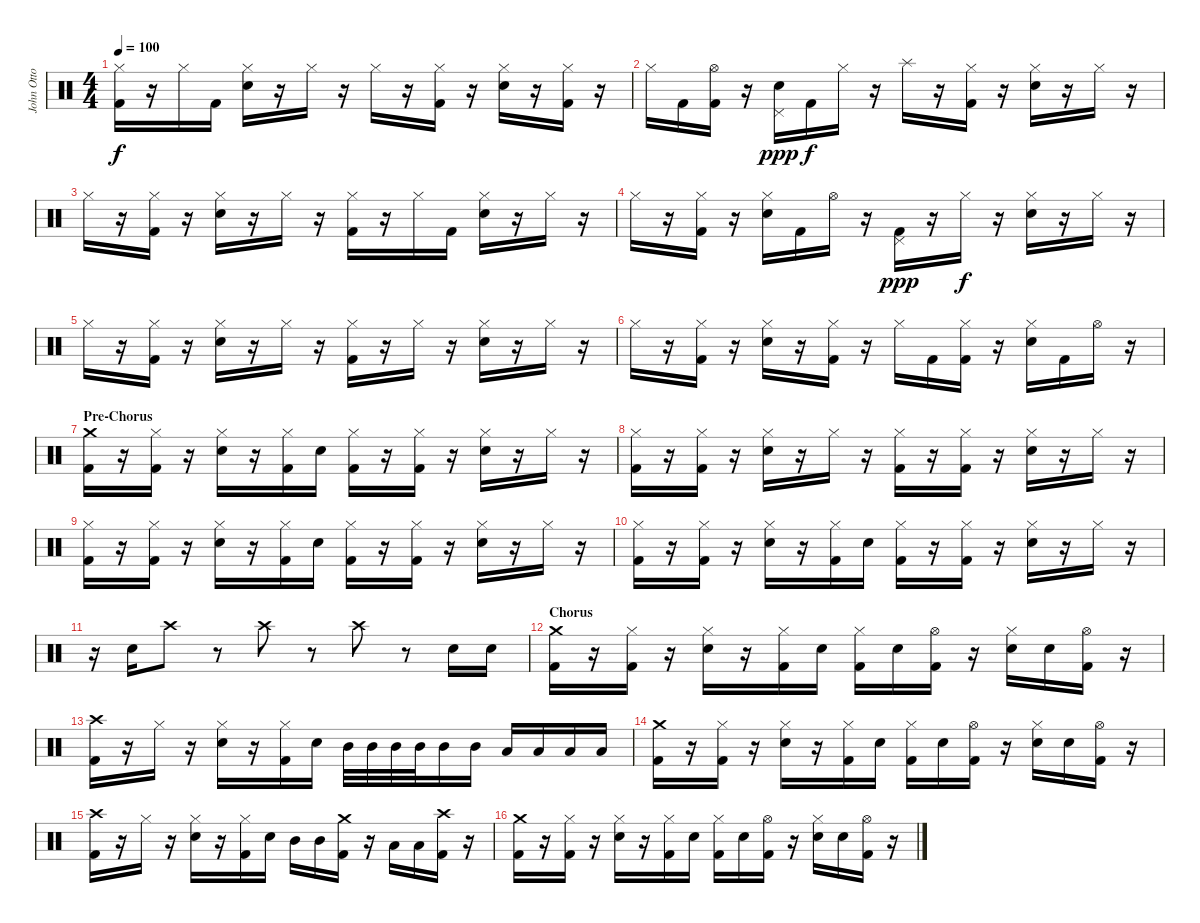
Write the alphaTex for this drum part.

\track ("John Otto - Drums" "John Otto ") {instrument percussion}
\staff {score}
\articulation defaults
\ts (4 4)
\tempo 100
\clef neutral
\ks c
("Hi-Hat (closed)" "Kick (hit) 2").16{dy f} r.16 "Hi-Hat (closed)".16 "Kick (hit) 2".16 ("Hi-Hat (closed)" "Electric Snare (hit)").16 r.16 "Hi-Hat (closed)".16 r.16 "Hi-Hat (closed)".16 r.16 ("Hi-Hat (closed)" "Kick (hit) 2").16 r.16 ("Hi-Hat (closed)" "Electric Snare (hit)").16 r.16 ("Hi-Hat (closed)" "Kick (hit) 2").16 r.16 |
"Hi-Hat (closed)".16 "Kick (hit) 2".16 ("Hi-Hat (open)" "Kick (hit) 2").16 r.16 ("Pedal Hi-Hat (hit)" "Electric Snare (hit)").16{dy ppp} "Kick (hit) 2".16{dy f} "Hi-Hat (closed)".16 r.16 "Splash (hit)".16 r.16 ("Hi-Hat (closed)" "Kick (hit) 2").16 r.16 ("Hi-Hat (closed)" "Electric Snare (hit)").16 r.16 "Hi-Hat (closed)".16 r.16 |
"Hi-Hat (closed)".16 r.16 ("Hi-Hat (closed)" "Kick (hit) 2").16 r.16 ("Hi-Hat (closed)" "Electric Snare (hit)").16 r.16 "Hi-Hat (closed)".16 r.16 ("Hi-Hat (closed)" "Kick (hit) 2").16 r.16 "Hi-Hat (closed)".16 "Kick (hit) 2".16 ("Hi-Hat (closed)" "Electric Snare (hit)").16 r.16 "Hi-Hat (closed)".16 r.16 |
"Hi-Hat (closed)".16 r.16 ("Hi-Hat (closed)" "Kick (hit) 2").16 r.16 ("Hi-Hat (closed)" "Electric Snare (hit)").16 "Kick (hit) 2".16 "Hi-Hat (open)".16 r.16 ("Pedal Hi-Hat (hit)" "Kick (hit) 2").16{dy ppp} r.16 "Hi-Hat (closed)".16{dy f} r.16 ("Hi-Hat (closed)" "Electric Snare (hit)").16 r.16 "Hi-Hat (closed)".16 r.16 |
"Hi-Hat (closed)".16 r.16 ("Hi-Hat (closed)" "Kick (hit) 2").16 r.16 ("Hi-Hat (closed)" "Electric Snare (hit)").16 r.16 "Hi-Hat (closed)".16 r.16 ("Hi-Hat (closed)" "Kick (hit) 2").16 r.16 "Hi-Hat (closed)".16 r.16 ("Hi-Hat (closed)" "Electric Snare (hit)").16 r.16 "Hi-Hat (closed)".16 r.16 |
"Hi-Hat (closed)".16 r.16 ("Hi-Hat (closed)" "Kick (hit) 2").16 r.16 ("Hi-Hat (closed)" "Electric Snare (hit)").16 r.16 ("Hi-Hat (closed)" "Kick (hit) 2").16 r.16 "Hi-Hat (closed)".16 "Kick (hit) 2".16 ("Hi-Hat (closed)" "Kick (hit) 2").16 r.16 ("Hi-Hat (closed)" "Electric Snare (hit)").16 "Kick (hit) 2".16 "Hi-Hat (open)".16 r.16 |
\section ("" "Pre-Chorus")
("Crash medium (hit)" "Kick (hit) 2").16 r.16 ("Hi-Hat (closed)" "Kick (hit) 2").16 r.16 ("Hi-Hat (closed)" "Electric Snare (hit)").16 r.16 ("Hi-Hat (closed)" "Kick (hit) 2").16 "Electric Snare (hit)".16 ("Hi-Hat (closed)" "Kick (hit) 2").16 r.16 ("Hi-Hat (closed)" "Kick (hit) 2").16 r.16 ("Hi-Hat (closed)" "Electric Snare (hit)").16 r.16 "Hi-Hat (closed)".16 r.16 |
("Hi-Hat (closed)" "Kick (hit) 2").16 r.16 ("Hi-Hat (closed)" "Kick (hit) 2").16 r.16 ("Hi-Hat (closed)" "Electric Snare (hit)").16 r.16 "Hi-Hat (closed)".16 r.16 ("Hi-Hat (closed)" "Kick (hit) 2").16 r.16 ("Hi-Hat (closed)" "Kick (hit) 2").16 r.16 ("Hi-Hat (closed)" "Electric Snare (hit)").16 r.16 "Hi-Hat (closed)".16 r.16 |
("Hi-Hat (closed)" "Kick (hit) 2").16 r.16 ("Hi-Hat (closed)" "Kick (hit) 2").16 r.16 ("Hi-Hat (closed)" "Electric Snare (hit)").16 r.16 ("Hi-Hat (closed)" "Kick (hit) 2").16 "Electric Snare (hit)".16 ("Hi-Hat (closed)" "Kick (hit) 2").16 r.16 ("Hi-Hat (closed)" "Kick (hit) 2").16 r.16 ("Hi-Hat (closed)" "Electric Snare (hit)").16 r.16 "Hi-Hat (closed)".16 r.16 |
("Hi-Hat (closed)" "Kick (hit) 2").16 r.16 ("Hi-Hat (closed)" "Kick (hit) 2").16 r.16 ("Hi-Hat (closed)" "Electric Snare (hit)").16 r.16 ("Hi-Hat (closed)" "Kick (hit) 2").16 "Electric Snare (hit)".16 ("Hi-Hat (closed)" "Kick (hit) 2").16 r.16 ("Hi-Hat (closed)" "Kick (hit) 2").16 r.16 ("Hi-Hat (closed)" "Electric Snare (hit)").16 r.16 "Hi-Hat (closed)".16 r.16 |
r.16 "Electric Snare (hit)".16 "Crash high (hit)".8{volume 12} r.8{volume 0} "Crash high (hit)".8{volume 12} r.8{volume 0} "Crash high (hit)".8{volume 12} r.8{volume 0} "Electric Snare (hit)".16{volume 12} "Electric Snare (hit)".16 |
\section ("" "Chorus")
("Crash medium (hit)" "Kick (hit) 2").16 r.16 ("Hi-Hat (closed)" "Kick (hit) 2").16 r.16 ("Hi-Hat (closed)" "Electric Snare (hit)").16 r.16 ("Hi-Hat (closed)" "Kick (hit) 2").16 "Electric Snare (hit)".16 ("Hi-Hat (closed)" "Kick (hit) 2").16 "Electric Snare (hit)".16 ("Hi-Hat (open)" "Kick (hit) 2").16 r.16 ("Hi-Hat (closed)" "Electric Snare (hit)").16 "Electric Snare (hit)".16 ("Hi-Hat (open)" "Kick (hit) 2").16 r.16 |
("Crash high (hit)" "Kick (hit) 2").16 r.16 "Hi-Hat (closed)".16 r.16 ("Hi-Hat (closed)" "Electric Snare (hit)").16 r.16 ("Hi-Hat (closed)" "Kick (hit) 2").16 "Electric Snare (hit)".16 "Mid Tom (hit)".32 "Mid Tom (hit)".32 "Mid Tom (hit)".32 "Mid Tom (hit)".32 "Mid Tom (hit)".16 "Mid Tom (hit)".16 "Low Tom (hit)".16 "Low Tom (hit)".16 "Low Tom (hit)".16 "Low Tom (hit)".16 |
("Crash medium (hit)" "Kick (hit) 2").16 r.16 ("Hi-Hat (closed)" "Kick (hit) 2").16 r.16 ("Hi-Hat (closed)" "Electric Snare (hit)").16 r.16 ("Hi-Hat (closed)" "Kick (hit) 2").16 "Electric Snare (hit)".16 ("Hi-Hat (closed)" "Kick (hit) 2").16 "Electric Snare (hit)".16 ("Hi-Hat (open)" "Kick (hit) 2").16 r.16 ("Hi-Hat (closed)" "Electric Snare (hit)").16 "Electric Snare (hit)".16 ("Hi-Hat (open)" "Kick (hit) 2").16 r.16 |
("Crash high (hit)" "Kick (hit) 2").16 r.16 "Hi-Hat (closed)".16 r.16 ("Hi-Hat (closed)" "Electric Snare (hit)").16 r.16 ("Hi-Hat (closed)" "Kick (hit) 2").16 "Electric Snare (hit)".16 "Mid Tom (hit)".16 "Mid Tom (hit)".16 ("Crash medium (hit)" "Kick (hit) 2").16 r.16 "Low Tom (hit)".16 "Low Tom (hit)".16 ("Crash high (hit)" "Kick (hit) 2").16 r.16 |
("Crash medium (hit)" "Kick (hit) 2").16 r.16 ("Hi-Hat (closed)" "Kick (hit) 2").16 r.16 ("Hi-Hat (closed)" "Electric Snare (hit)").16 r.16 ("Hi-Hat (closed)" "Kick (hit) 2").16 "Electric Snare (hit)".16 ("Hi-Hat (closed)" "Kick (hit) 2").16 "Electric Snare (hit)".16 ("Hi-Hat (open)" "Kick (hit) 2").16 r.16 ("Hi-Hat (closed)" "Electric Snare (hit)").16 "Electric Snare (hit)".16 ("Hi-Hat (open)" "Kick (hit) 2").16 r.16
